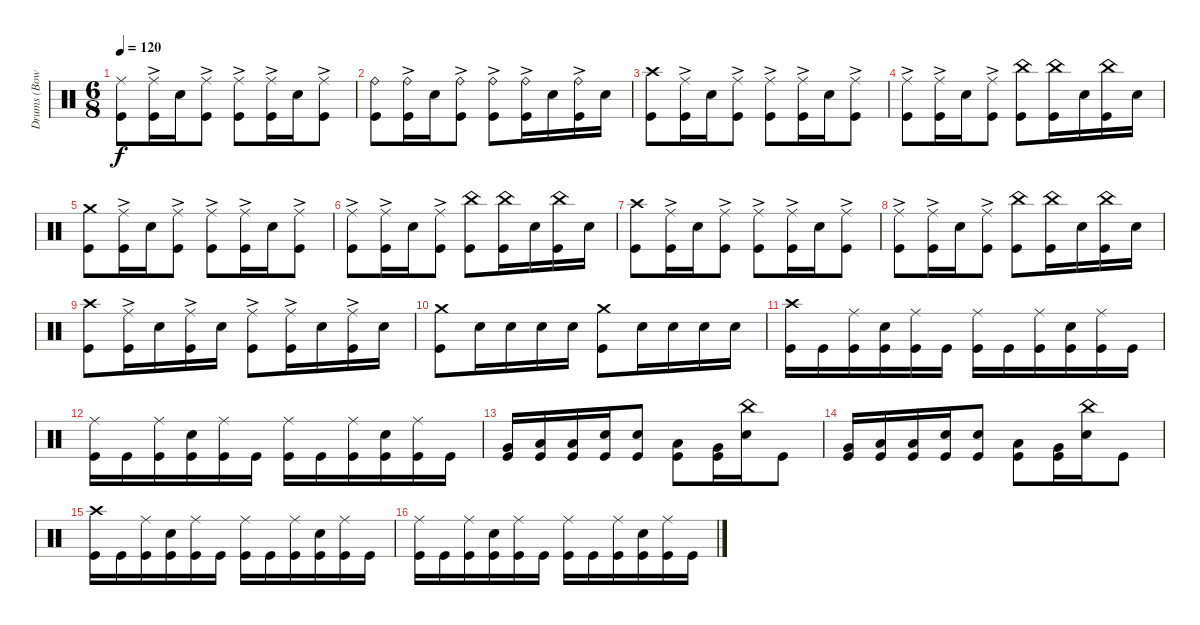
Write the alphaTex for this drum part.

\track ("Drums (Bowders)" "Drums (Bow") {instrument percussion}
\staff {score}
\articulation defaults
\ts (6 8)
\tempo 120
\clef neutral
\ks c
("Kick (hit)" "Ride (middle)").8{dy f} ("Kick (hit)" "Ride (middle)"{ac}).16 "Snare (hit) 2".16 ("Kick (hit)" "Ride (middle)"{ac}).8 ("Kick (hit)" "Ride (middle)"{ac}).8 ("Kick (hit)" "Ride (middle)"{ac}).16 "Snare (hit) 2".16 ("Kick (hit)" "Ride (middle)"{ac}).8 |
("Kick (hit)" "Ride (bell)").8 ("Kick (hit)" "Ride (bell)"{ac}).16 "Snare (hit) 2".16 ("Kick (hit)" "Ride (bell)"{ac}).8 ("Kick (hit)" "Ride (bell)"{ac}).8 ("Kick (hit)" "Ride (bell)"{ac}).16 "Snare (hit) 2".16 ("Kick (hit)" "Ride (bell)"{ac}).16 "Snare (hit) 2".16 |
("Kick (hit)" "Crash high (hit)").8 ("Kick (hit)" "Ride (middle)"{ac}).16 "Snare (hit) 2".16 ("Kick (hit)" "Ride (middle)"{ac}).8 ("Kick (hit)" "Ride (middle)"{ac}).8 ("Kick (hit)" "Ride (middle)"{ac}).16 "Snare (hit) 2".16 ("Kick (hit)" "Ride (middle)"{ac}).8 |
("Kick (hit)" "Ride (middle)"{ac}).8 ("Kick (hit)" "Ride (middle)"{ac}).16 "Snare (hit) 2".16 ("Kick (hit)" "Ride (middle)"{ac}).8 ("Kick (hit)" "China (hit)").8 ("Kick (hit)" "China (hit)").16 "Snare (hit) 2".16 ("Kick (hit)" "China (hit)").16 "Snare (hit) 2".16 |
("Kick (hit)" "Crash medium (hit)").8 ("Kick (hit)" "Ride (middle)"{ac}).16 "Snare (hit) 2".16 ("Kick (hit)" "Ride (middle)"{ac}).8 ("Kick (hit)" "Ride (middle)"{ac}).8 ("Kick (hit)" "Ride (middle)"{ac}).16 "Snare (hit) 2".16 ("Kick (hit)" "Ride (middle)"{ac}).8 |
("Kick (hit)" "Ride (middle)"{ac}).8 ("Kick (hit)" "Ride (middle)"{ac}).16 "Snare (hit) 2".16 ("Kick (hit)" "Ride (middle)"{ac}).8 ("Kick (hit)" "China (hit)").8 ("Kick (hit)" "China (hit)").16 "Snare (hit) 2".16 ("Kick (hit)" "China (hit)").16 "Snare (hit) 2".16 |
("Kick (hit)" "Crash high (hit)").8 ("Kick (hit)" "Ride (middle)"{ac}).16 "Snare (hit) 2".16 ("Kick (hit)" "Ride (middle)"{ac}).8 ("Kick (hit)" "Ride (middle)"{ac}).8 ("Kick (hit)" "Ride (middle)"{ac}).16 "Snare (hit) 2".16 ("Kick (hit)" "Ride (middle)"{ac}).8 |
("Kick (hit)" "Ride (middle)"{ac}).8 ("Kick (hit)" "Ride (middle)"{ac}).16 "Snare (hit) 2".16 ("Kick (hit)" "Ride (middle)"{ac}).8 ("Kick (hit)" "China (hit)").8 ("Kick (hit)" "China (hit)").16 "Snare (hit) 2".16 ("Kick (hit)" "China (hit)").16 "Snare (hit) 2".16 |
("Kick (hit)" "Crash high (hit)").8 ("Kick (hit)" "Ride (middle)"{ac}).16 "Snare (hit) 2".16 ("Kick (hit)" "Ride (middle)"{ac}).16 "Snare (hit) 2".16 ("Kick (hit)" "Ride (middle)"{ac}).8 ("Kick (hit)" "Ride (middle)"{ac}).16 "Snare (hit) 2".16 ("Kick (hit)" "Ride (middle)"{ac}).16 "Snare (hit) 2".16 |
("Kick (hit)" "Crash medium (hit)").8 "Snare (hit) 2".16 "Snare (hit) 2".16 "Snare (hit) 2".16 "Snare (hit) 2".16 ("Kick (hit)" "Crash medium (hit)").8 "Snare (hit) 2".16 "Snare (hit) 2".16 "Snare (hit) 2".16 "Snare (hit) 2".16 |
("Kick (hit)" "Crash high (hit)").16 "Kick (hit)".16 ("Kick (hit)" "Ride (middle)").16 ("Kick (hit)" "Snare (hit) 2").16 ("Kick (hit)" "Ride (middle)").16 "Kick (hit)".16 ("Kick (hit)" "Ride (middle)").16 "Kick (hit)".16 ("Kick (hit)" "Ride (middle)").16 ("Kick (hit)" "Snare (hit) 2").16 ("Kick (hit)" "Ride (middle)").16 "Kick (hit)".16 |
("Kick (hit)" "Ride (middle)").16 "Kick (hit)".16 ("Kick (hit)" "Ride (middle)").16 ("Kick (hit)" "Snare (hit) 2").16 ("Kick (hit)" "Ride (middle)").16 "Kick (hit)".16 ("Kick (hit)" "Ride (middle)").16 "Kick (hit)".16 ("Kick (hit)" "Ride (middle)").16 ("Kick (hit)" "Snare (hit) 2").16 ("Kick (hit)" "Ride (middle)").16 "Kick (hit)".16 |
("Kick (hit)" "Very Low Tom (hit)").16 ("Low Floor Tom (hit)" "Kick (hit)").16 ("Kick (hit)" "Low Tom (hit)").16 ("Snare (hit) 2" "Kick (hit)").16 ("Kick (hit)" "Snare (hit) 2").8 ("Kick (hit)" "Low Tom (hit)").8 ("Kick (hit)" "Very Low Tom (hit)").16 ("Snare (hit) 2" "China (hit)").16 "Kick (hit)".8 |
("Kick (hit)" "Very Low Tom (hit)").16 ("Low Floor Tom (hit)" "Kick (hit)").16 ("Kick (hit)" "Low Tom (hit)").16 ("Snare (hit) 2" "Kick (hit)").16 ("Kick (hit)" "Snare (hit) 2").8 ("Kick (hit)" "Low Tom (hit)").8 ("Kick (hit)" "Very Low Tom (hit)").16 ("Snare (hit) 2" "China (hit)").16 "Kick (hit)".8 |
("Kick (hit)" "Crash high (hit)").16 "Kick (hit)".16 ("Kick (hit)" "Ride (middle)").16 ("Kick (hit)" "Snare (hit) 2").16 ("Kick (hit)" "Ride (middle)").16 "Kick (hit)".16 ("Kick (hit)" "Ride (middle)").16 "Kick (hit)".16 ("Kick (hit)" "Ride (middle)").16 ("Kick (hit)" "Snare (hit) 2").16 ("Kick (hit)" "Ride (middle)").16 "Kick (hit)".16 |
("Kick (hit)" "Ride (middle)").16 "Kick (hit)".16 ("Kick (hit)" "Ride (middle)").16 ("Kick (hit)" "Snare (hit) 2").16 ("Kick (hit)" "Ride (middle)").16 "Kick (hit)".16 ("Kick (hit)" "Ride (middle)").16 "Kick (hit)".16 ("Kick (hit)" "Ride (middle)").16 ("Kick (hit)" "Snare (hit) 2").16 ("Kick (hit)" "Ride (middle)").16 "Kick (hit)".16
